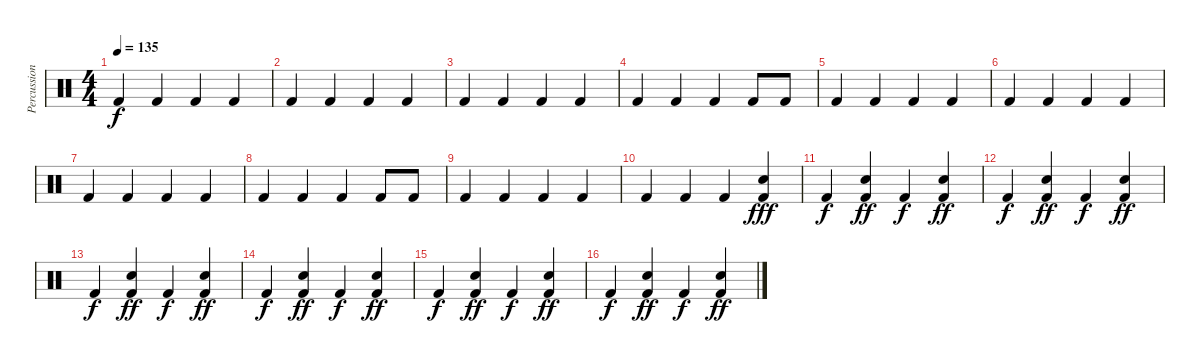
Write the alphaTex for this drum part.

\track ("Percussion" "Percussion") {instrument percussion}
\staff {score}
\articulation defaults
\ts (4 4)
\tempo 135
\clef neutral
\ks c "Kick (hit) 2".4{dy f} "Kick (hit) 2".4 "Kick (hit) 2".4 "Kick (hit) 2".4
|
"Kick (hit) 2".4 "Kick (hit) 2".4 "Kick (hit) 2".4 "Kick (hit) 2".4 |
"Kick (hit) 2".4 "Kick (hit) 2".4 "Kick (hit) 2".4 "Kick (hit) 2".4 |
"Kick (hit) 2".4 "Kick (hit) 2".4 "Kick (hit) 2".4 "Kick (hit) 2".8 "Kick (hit) 2".8 |
"Kick (hit) 2".4 "Kick (hit) 2".4 "Kick (hit) 2".4 "Kick (hit) 2".4 |
"Kick (hit) 2".4 "Kick (hit) 2".4 "Kick (hit) 2".4 "Kick (hit) 2".4 |
"Kick (hit) 2".4 "Kick (hit) 2".4 "Kick (hit) 2".4 "Kick (hit) 2".4 |
"Kick (hit) 2".4 "Kick (hit) 2".4 "Kick (hit) 2".4 "Kick (hit) 2".8 "Kick (hit) 2".8 |
"Kick (hit) 2".4 "Kick (hit) 2".4 "Kick (hit) 2".4 "Kick (hit) 2".4 |
"Kick (hit) 2".4 "Kick (hit) 2".4 "Kick (hit) 2".4 ("Electric Snare (hit)" "Kick (hit) 2").4{dy fff} |
"Kick (hit) 2".4{dy f} ("Electric Snare (hit)" "Kick (hit) 2").4{dy ff} "Kick (hit) 2".4{dy f} ("Electric Snare (hit)" "Kick (hit) 2").4{dy ff} |
"Kick (hit) 2".4{dy f} ("Electric Snare (hit)" "Kick (hit) 2").4{dy ff} "Kick (hit) 2".4{dy f} ("Electric Snare (hit)" "Kick (hit) 2").4{dy ff} |
"Kick (hit) 2".4{dy f} ("Electric Snare (hit)" "Kick (hit) 2").4{dy ff} "Kick (hit) 2".4{dy f} ("Electric Snare (hit)" "Kick (hit) 2").4{dy ff} |
"Kick (hit) 2".4{dy f} ("Electric Snare (hit)" "Kick (hit) 2").4{dy ff} "Kick (hit) 2".4{dy f} ("Electric Snare (hit)" "Kick (hit) 2").4{dy ff} |
"Kick (hit) 2".4{dy f} ("Electric Snare (hit)" "Kick (hit) 2").4{dy ff} "Kick (hit) 2".4{dy f} ("Electric Snare (hit)" "Kick (hit) 2").4{dy ff} |
"Kick (hit) 2".4{dy f} ("Electric Snare (hit)" "Kick (hit) 2").4{dy ff} "Kick (hit) 2".4{dy f} ("Electric Snare (hit)" "Kick (hit) 2").4{dy ff}
